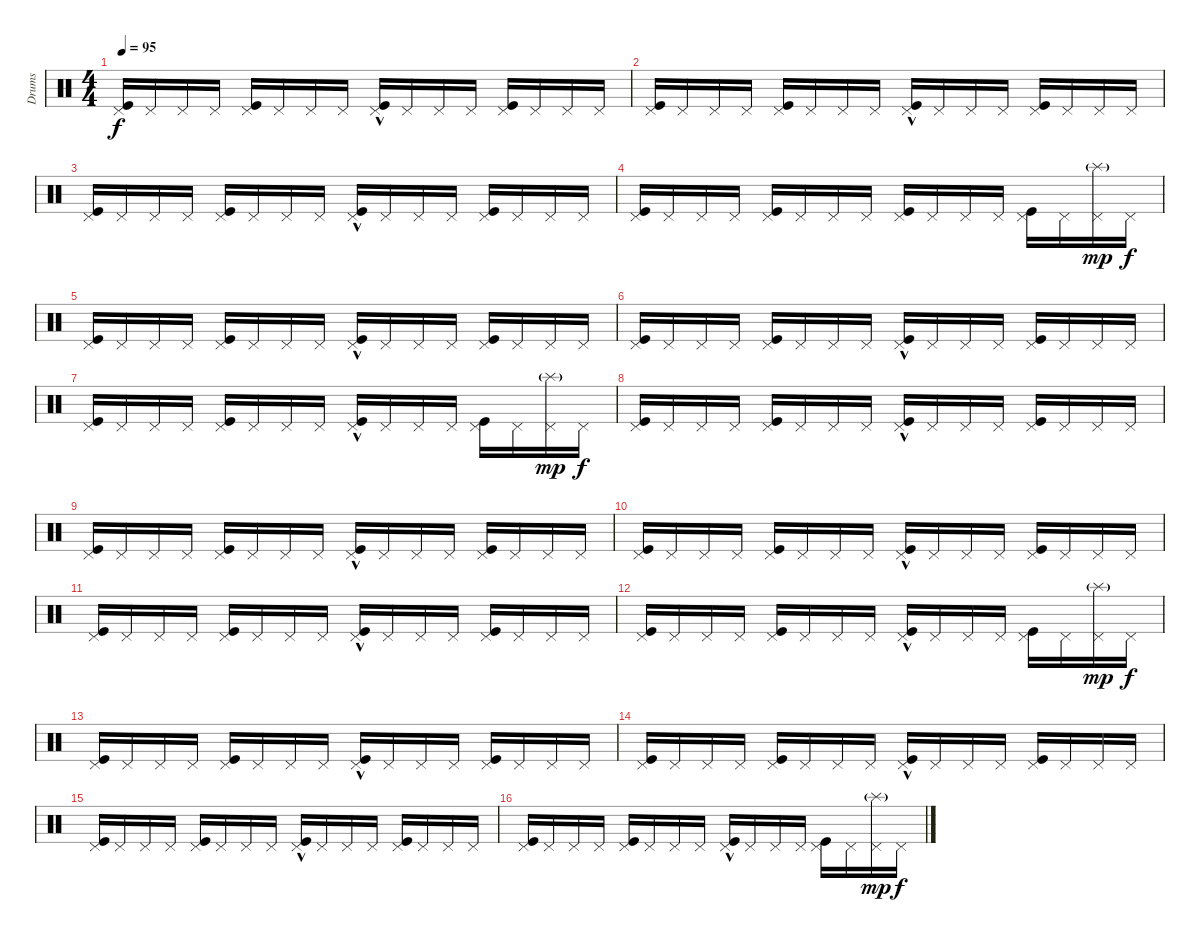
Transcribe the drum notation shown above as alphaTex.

\track ("Drums" "Drums") {instrument percussion}
\staff {score}
\articulation defaults
\ts (4 4)
\tempo 95
\clef neutral
\ks c
("Kick (hit)" "Pedal Hi-Hat (hit)").16{dy f} "Pedal Hi-Hat (hit)".16 "Pedal Hi-Hat (hit)".16 "Pedal Hi-Hat (hit)".16 ("Kick (hit)" "Pedal Hi-Hat (hit)").16 "Pedal Hi-Hat (hit)".16 "Pedal Hi-Hat (hit)".16 "Pedal Hi-Hat (hit)".16 ("Kick (hit)" "Pedal Hi-Hat (hit)"{hac}).16 "Pedal Hi-Hat (hit)".16 "Pedal Hi-Hat (hit)".16 "Pedal Hi-Hat (hit)".16 ("Kick (hit)" "Pedal Hi-Hat (hit)").16 "Pedal Hi-Hat (hit)".16 "Pedal Hi-Hat (hit)".16 "Pedal Hi-Hat (hit)".16 |
("Kick (hit)" "Pedal Hi-Hat (hit)").16 "Pedal Hi-Hat (hit)".16 "Pedal Hi-Hat (hit)".16 "Pedal Hi-Hat (hit)".16 ("Kick (hit)" "Pedal Hi-Hat (hit)").16 "Pedal Hi-Hat (hit)".16 "Pedal Hi-Hat (hit)".16 "Pedal Hi-Hat (hit)".16 ("Kick (hit)" "Pedal Hi-Hat (hit)"{hac}).16 "Pedal Hi-Hat (hit)".16 "Pedal Hi-Hat (hit)".16 "Pedal Hi-Hat (hit)".16 ("Kick (hit)" "Pedal Hi-Hat (hit)").16 "Pedal Hi-Hat (hit)".16 "Pedal Hi-Hat (hit)".16 "Pedal Hi-Hat (hit)".16 |
("Kick (hit)" "Pedal Hi-Hat (hit)").16 "Pedal Hi-Hat (hit)".16 "Pedal Hi-Hat (hit)".16 "Pedal Hi-Hat (hit)".16 ("Kick (hit)" "Pedal Hi-Hat (hit)").16 "Pedal Hi-Hat (hit)".16 "Pedal Hi-Hat (hit)".16 "Pedal Hi-Hat (hit)".16 ("Kick (hit)" "Pedal Hi-Hat (hit)"{hac}).16 "Pedal Hi-Hat (hit)".16 "Pedal Hi-Hat (hit)".16 "Pedal Hi-Hat (hit)".16 ("Kick (hit)" "Pedal Hi-Hat (hit)").16 "Pedal Hi-Hat (hit)".16 "Pedal Hi-Hat (hit)".16 "Pedal Hi-Hat (hit)".16 |
("Kick (hit)" "Pedal Hi-Hat (hit)").16 "Pedal Hi-Hat (hit)".16 "Pedal Hi-Hat (hit)".16 "Pedal Hi-Hat (hit)".16 ("Kick (hit)" "Pedal Hi-Hat (hit)").16 "Pedal Hi-Hat (hit)".16 "Pedal Hi-Hat (hit)".16 "Pedal Hi-Hat (hit)".16 ("Kick (hit)" "Pedal Hi-Hat (hit)").16 "Pedal Hi-Hat (hit)".16 "Pedal Hi-Hat (hit)".16 "Pedal Hi-Hat (hit)".16 ("Kick (hit)" "Pedal Hi-Hat (hit)").16 "Pedal Hi-Hat (hit)".16 ("Splash (hit)"{g} "Pedal Hi-Hat (hit)").16{dy mp} "Pedal Hi-Hat (hit)".16{dy f} |
("Kick (hit)" "Pedal Hi-Hat (hit)").16 "Pedal Hi-Hat (hit)".16 "Pedal Hi-Hat (hit)".16 "Pedal Hi-Hat (hit)".16 ("Kick (hit)" "Pedal Hi-Hat (hit)").16 "Pedal Hi-Hat (hit)".16 "Pedal Hi-Hat (hit)".16 "Pedal Hi-Hat (hit)".16 ("Kick (hit)" "Pedal Hi-Hat (hit)"{hac}).16 "Pedal Hi-Hat (hit)".16 "Pedal Hi-Hat (hit)".16 "Pedal Hi-Hat (hit)".16 ("Kick (hit)" "Pedal Hi-Hat (hit)").16 "Pedal Hi-Hat (hit)".16 "Pedal Hi-Hat (hit)".16 "Pedal Hi-Hat (hit)".16 |
("Kick (hit)" "Pedal Hi-Hat (hit)").16 "Pedal Hi-Hat (hit)".16 "Pedal Hi-Hat (hit)".16 "Pedal Hi-Hat (hit)".16 ("Kick (hit)" "Pedal Hi-Hat (hit)").16 "Pedal Hi-Hat (hit)".16 "Pedal Hi-Hat (hit)".16 "Pedal Hi-Hat (hit)".16 ("Kick (hit)" "Pedal Hi-Hat (hit)"{hac}).16 "Pedal Hi-Hat (hit)".16 "Pedal Hi-Hat (hit)".16 "Pedal Hi-Hat (hit)".16 ("Kick (hit)" "Pedal Hi-Hat (hit)").16 "Pedal Hi-Hat (hit)".16 "Pedal Hi-Hat (hit)".16 "Pedal Hi-Hat (hit)".16 |
("Kick (hit)" "Pedal Hi-Hat (hit)").16 "Pedal Hi-Hat (hit)".16 "Pedal Hi-Hat (hit)".16 "Pedal Hi-Hat (hit)".16 ("Kick (hit)" "Pedal Hi-Hat (hit)").16 "Pedal Hi-Hat (hit)".16 "Pedal Hi-Hat (hit)".16 "Pedal Hi-Hat (hit)".16 ("Kick (hit)" "Pedal Hi-Hat (hit)"{hac}).16 "Pedal Hi-Hat (hit)".16 "Pedal Hi-Hat (hit)".16 "Pedal Hi-Hat (hit)".16 ("Kick (hit)" "Pedal Hi-Hat (hit)").16 "Pedal Hi-Hat (hit)".16 ("Splash (hit)"{g} "Pedal Hi-Hat (hit)").16{dy mp} "Pedal Hi-Hat (hit)".16{dy f} |
("Kick (hit)" "Pedal Hi-Hat (hit)").16 "Pedal Hi-Hat (hit)".16 "Pedal Hi-Hat (hit)".16 "Pedal Hi-Hat (hit)".16 ("Kick (hit)" "Pedal Hi-Hat (hit)").16 "Pedal Hi-Hat (hit)".16 "Pedal Hi-Hat (hit)".16 "Pedal Hi-Hat (hit)".16 ("Kick (hit)" "Pedal Hi-Hat (hit)"{hac}).16 "Pedal Hi-Hat (hit)".16 "Pedal Hi-Hat (hit)".16 "Pedal Hi-Hat (hit)".16 ("Kick (hit)" "Pedal Hi-Hat (hit)").16 "Pedal Hi-Hat (hit)".16 "Pedal Hi-Hat (hit)".16 "Pedal Hi-Hat (hit)".16 |
("Kick (hit)" "Pedal Hi-Hat (hit)").16 "Pedal Hi-Hat (hit)".16 "Pedal Hi-Hat (hit)".16 "Pedal Hi-Hat (hit)".16 ("Kick (hit)" "Pedal Hi-Hat (hit)").16 "Pedal Hi-Hat (hit)".16 "Pedal Hi-Hat (hit)".16 "Pedal Hi-Hat (hit)".16 ("Kick (hit)" "Pedal Hi-Hat (hit)"{hac}).16 "Pedal Hi-Hat (hit)".16 "Pedal Hi-Hat (hit)".16 "Pedal Hi-Hat (hit)".16 ("Kick (hit)" "Pedal Hi-Hat (hit)").16 "Pedal Hi-Hat (hit)".16 "Pedal Hi-Hat (hit)".16 "Pedal Hi-Hat (hit)".16 |
("Kick (hit)" "Pedal Hi-Hat (hit)").16 "Pedal Hi-Hat (hit)".16 "Pedal Hi-Hat (hit)".16 "Pedal Hi-Hat (hit)".16 ("Kick (hit)" "Pedal Hi-Hat (hit)").16 "Pedal Hi-Hat (hit)".16 "Pedal Hi-Hat (hit)".16 "Pedal Hi-Hat (hit)".16 ("Kick (hit)" "Pedal Hi-Hat (hit)"{hac}).16 "Pedal Hi-Hat (hit)".16 "Pedal Hi-Hat (hit)".16 "Pedal Hi-Hat (hit)".16 ("Kick (hit)" "Pedal Hi-Hat (hit)").16 "Pedal Hi-Hat (hit)".16 "Pedal Hi-Hat (hit)".16 "Pedal Hi-Hat (hit)".16 |
("Kick (hit)" "Pedal Hi-Hat (hit)").16 "Pedal Hi-Hat (hit)".16 "Pedal Hi-Hat (hit)".16 "Pedal Hi-Hat (hit)".16 ("Kick (hit)" "Pedal Hi-Hat (hit)").16 "Pedal Hi-Hat (hit)".16 "Pedal Hi-Hat (hit)".16 "Pedal Hi-Hat (hit)".16 ("Kick (hit)" "Pedal Hi-Hat (hit)"{hac}).16 "Pedal Hi-Hat (hit)".16 "Pedal Hi-Hat (hit)".16 "Pedal Hi-Hat (hit)".16 ("Kick (hit)" "Pedal Hi-Hat (hit)").16 "Pedal Hi-Hat (hit)".16 "Pedal Hi-Hat (hit)".16 "Pedal Hi-Hat (hit)".16 |
("Kick (hit)" "Pedal Hi-Hat (hit)").16 "Pedal Hi-Hat (hit)".16 "Pedal Hi-Hat (hit)".16 "Pedal Hi-Hat (hit)".16 ("Kick (hit)" "Pedal Hi-Hat (hit)").16 "Pedal Hi-Hat (hit)".16 "Pedal Hi-Hat (hit)".16 "Pedal Hi-Hat (hit)".16 ("Kick (hit)" "Pedal Hi-Hat (hit)"{hac}).16 "Pedal Hi-Hat (hit)".16 "Pedal Hi-Hat (hit)".16 "Pedal Hi-Hat (hit)".16 ("Kick (hit)" "Pedal Hi-Hat (hit)").16 "Pedal Hi-Hat (hit)".16 ("Splash (hit)"{g} "Pedal Hi-Hat (hit)").16{dy mp} "Pedal Hi-Hat (hit)".16{dy f} |
("Kick (hit)" "Pedal Hi-Hat (hit)").16 "Pedal Hi-Hat (hit)".16 "Pedal Hi-Hat (hit)".16 "Pedal Hi-Hat (hit)".16 ("Kick (hit)" "Pedal Hi-Hat (hit)").16 "Pedal Hi-Hat (hit)".16 "Pedal Hi-Hat (hit)".16 "Pedal Hi-Hat (hit)".16 ("Kick (hit)" "Pedal Hi-Hat (hit)"{hac}).16 "Pedal Hi-Hat (hit)".16 "Pedal Hi-Hat (hit)".16 "Pedal Hi-Hat (hit)".16 ("Kick (hit)" "Pedal Hi-Hat (hit)").16 "Pedal Hi-Hat (hit)".16 "Pedal Hi-Hat (hit)".16 "Pedal Hi-Hat (hit)".16 |
("Kick (hit)" "Pedal Hi-Hat (hit)").16 "Pedal Hi-Hat (hit)".16 "Pedal Hi-Hat (hit)".16 "Pedal Hi-Hat (hit)".16 ("Kick (hit)" "Pedal Hi-Hat (hit)").16 "Pedal Hi-Hat (hit)".16 "Pedal Hi-Hat (hit)".16 "Pedal Hi-Hat (hit)".16 ("Kick (hit)" "Pedal Hi-Hat (hit)"{hac}).16 "Pedal Hi-Hat (hit)".16 "Pedal Hi-Hat (hit)".16 "Pedal Hi-Hat (hit)".16 ("Kick (hit)" "Pedal Hi-Hat (hit)").16 "Pedal Hi-Hat (hit)".16 "Pedal Hi-Hat (hit)".16 "Pedal Hi-Hat (hit)".16 |
("Kick (hit)" "Pedal Hi-Hat (hit)").16 "Pedal Hi-Hat (hit)".16 "Pedal Hi-Hat (hit)".16 "Pedal Hi-Hat (hit)".16 ("Kick (hit)" "Pedal Hi-Hat (hit)").16 "Pedal Hi-Hat (hit)".16 "Pedal Hi-Hat (hit)".16 "Pedal Hi-Hat (hit)".16 ("Kick (hit)" "Pedal Hi-Hat (hit)"{hac}).16 "Pedal Hi-Hat (hit)".16 "Pedal Hi-Hat (hit)".16 "Pedal Hi-Hat (hit)".16 ("Kick (hit)" "Pedal Hi-Hat (hit)").16 "Pedal Hi-Hat (hit)".16 "Pedal Hi-Hat (hit)".16 "Pedal Hi-Hat (hit)".16 |
("Kick (hit)" "Pedal Hi-Hat (hit)").16 "Pedal Hi-Hat (hit)".16 "Pedal Hi-Hat (hit)".16 "Pedal Hi-Hat (hit)".16 ("Kick (hit)" "Pedal Hi-Hat (hit)").16 "Pedal Hi-Hat (hit)".16 "Pedal Hi-Hat (hit)".16 "Pedal Hi-Hat (hit)".16 ("Kick (hit)" "Pedal Hi-Hat (hit)"{hac}).16 "Pedal Hi-Hat (hit)".16 "Pedal Hi-Hat (hit)".16 "Pedal Hi-Hat (hit)".16 ("Kick (hit)" "Pedal Hi-Hat (hit)").16 "Pedal Hi-Hat (hit)".16 ("Splash (hit)"{g} "Pedal Hi-Hat (hit)").16{dy mp} "Pedal Hi-Hat (hit)".16{dy f}
